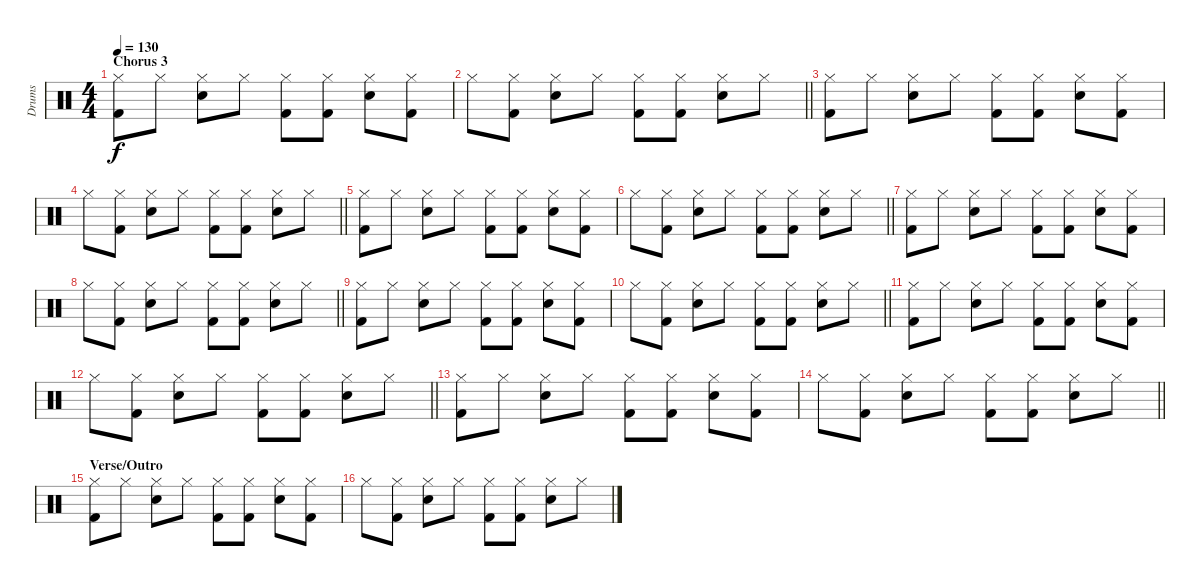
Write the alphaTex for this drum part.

\track ("Drums" "Drums") {instrument percussion}
\staff {score}
\articulation defaults
\ts (4 4)
\section ("" "Chorus 3")
\tempo 130
\clef neutral
\ks c
("Hi-Hat (closed)" "Kick (hit) 2").8{dy f} "Hi-Hat (closed)".8 ("Hi-Hat (closed)" "Electric Snare (hit)").8 "Hi-Hat (closed)".8 ("Hi-Hat (closed)" "Kick (hit) 2").8 ("Hi-Hat (closed)" "Kick (hit) 2").8 ("Hi-Hat (closed)" "Electric Snare (hit)").8 ("Hi-Hat (closed)" "Kick (hit) 2").8 |
\barLineRight lightlight "Hi-Hat (closed)".8
("Hi-Hat (closed)" "Kick (hit) 2").8 ("Hi-Hat (closed)" "Electric Snare (hit)").8 "Hi-Hat (closed)".8 ("Hi-Hat (closed)" "Kick (hit) 2").8 ("Hi-Hat (closed)" "Kick (hit) 2").8 ("Hi-Hat (closed)" "Electric Snare (hit)").8 "Hi-Hat (closed)".8 |
("Hi-Hat (closed)" "Kick (hit) 2").8 "Hi-Hat (closed)".8 ("Hi-Hat (closed)" "Electric Snare (hit)").8 "Hi-Hat (closed)".8 ("Hi-Hat (closed)" "Kick (hit) 2").8 ("Hi-Hat (closed)" "Kick (hit) 2").8 ("Hi-Hat (closed)" "Electric Snare (hit)").8 ("Hi-Hat (closed)" "Kick (hit) 2").8 |
\barLineRight lightlight "Hi-Hat (closed)".8
("Hi-Hat (closed)" "Kick (hit) 2").8 ("Hi-Hat (closed)" "Electric Snare (hit)").8 "Hi-Hat (closed)".8 ("Hi-Hat (closed)" "Kick (hit) 2").8 ("Hi-Hat (closed)" "Kick (hit) 2").8 ("Hi-Hat (closed)" "Electric Snare (hit)").8 "Hi-Hat (closed)".8 |
("Hi-Hat (closed)" "Kick (hit) 2").8 "Hi-Hat (closed)".8 ("Hi-Hat (closed)" "Electric Snare (hit)").8 "Hi-Hat (closed)".8 ("Hi-Hat (closed)" "Kick (hit) 2").8 ("Hi-Hat (closed)" "Kick (hit) 2").8 ("Hi-Hat (closed)" "Electric Snare (hit)").8 ("Hi-Hat (closed)" "Kick (hit) 2").8 |
\barLineRight lightlight "Hi-Hat (closed)".8
("Hi-Hat (closed)" "Kick (hit) 2").8 ("Hi-Hat (closed)" "Electric Snare (hit)").8 "Hi-Hat (closed)".8 ("Hi-Hat (closed)" "Kick (hit) 2").8 ("Hi-Hat (closed)" "Kick (hit) 2").8 ("Hi-Hat (closed)" "Electric Snare (hit)").8 "Hi-Hat (closed)".8 |
("Hi-Hat (closed)" "Kick (hit) 2").8 "Hi-Hat (closed)".8 ("Hi-Hat (closed)" "Electric Snare (hit)").8 "Hi-Hat (closed)".8 ("Hi-Hat (closed)" "Kick (hit) 2").8 ("Hi-Hat (closed)" "Kick (hit) 2").8 ("Hi-Hat (closed)" "Electric Snare (hit)").8 ("Hi-Hat (closed)" "Kick (hit) 2").8 |
\barLineRight lightlight "Hi-Hat (closed)".8
("Hi-Hat (closed)" "Kick (hit) 2").8 ("Hi-Hat (closed)" "Electric Snare (hit)").8 "Hi-Hat (closed)".8 ("Hi-Hat (closed)" "Kick (hit) 2").8 ("Hi-Hat (closed)" "Kick (hit) 2").8 ("Hi-Hat (closed)" "Electric Snare (hit)").8 "Hi-Hat (closed)".8 |
("Hi-Hat (closed)" "Kick (hit) 2").8 "Hi-Hat (closed)".8 ("Hi-Hat (closed)" "Electric Snare (hit)").8 "Hi-Hat (closed)".8 ("Hi-Hat (closed)" "Kick (hit) 2").8 ("Hi-Hat (closed)" "Kick (hit) 2").8 ("Hi-Hat (closed)" "Electric Snare (hit)").8 ("Hi-Hat (closed)" "Kick (hit) 2").8 |
\barLineRight lightlight "Hi-Hat (closed)".8
("Hi-Hat (closed)" "Kick (hit) 2").8 ("Hi-Hat (closed)" "Electric Snare (hit)").8 "Hi-Hat (closed)".8 ("Hi-Hat (closed)" "Kick (hit) 2").8 ("Hi-Hat (closed)" "Kick (hit) 2").8 ("Hi-Hat (closed)" "Electric Snare (hit)").8 "Hi-Hat (closed)".8 |
("Hi-Hat (closed)" "Kick (hit) 2").8 "Hi-Hat (closed)".8 ("Hi-Hat (closed)" "Electric Snare (hit)").8 "Hi-Hat (closed)".8 ("Hi-Hat (closed)" "Kick (hit) 2").8 ("Hi-Hat (closed)" "Kick (hit) 2").8 ("Hi-Hat (closed)" "Electric Snare (hit)").8 ("Hi-Hat (closed)" "Kick (hit) 2").8 |
\barLineRight lightlight "Hi-Hat (closed)".8
("Hi-Hat (closed)" "Kick (hit) 2").8 ("Hi-Hat (closed)" "Electric Snare (hit)").8 "Hi-Hat (closed)".8 ("Hi-Hat (closed)" "Kick (hit) 2").8 ("Hi-Hat (closed)" "Kick (hit) 2").8 ("Hi-Hat (closed)" "Electric Snare (hit)").8 "Hi-Hat (closed)".8 |
("Hi-Hat (closed)" "Kick (hit) 2").8 "Hi-Hat (closed)".8 ("Hi-Hat (closed)" "Electric Snare (hit)").8 "Hi-Hat (closed)".8 ("Hi-Hat (closed)" "Kick (hit) 2").8 ("Hi-Hat (closed)" "Kick (hit) 2").8 ("Hi-Hat (closed)" "Electric Snare (hit)").8 ("Hi-Hat (closed)" "Kick (hit) 2").8 |
\barLineRight lightlight "Hi-Hat (closed)".8
("Hi-Hat (closed)" "Kick (hit) 2").8 ("Hi-Hat (closed)" "Electric Snare (hit)").8 "Hi-Hat (closed)".8 ("Hi-Hat (closed)" "Kick (hit) 2").8 ("Hi-Hat (closed)" "Kick (hit) 2").8 ("Hi-Hat (closed)" "Electric Snare (hit)").8 "Hi-Hat (closed)".8 |
\section ("" "Verse/Outro")
("Hi-Hat (closed)" "Kick (hit) 2").8 "Hi-Hat (closed)".8 ("Hi-Hat (closed)" "Electric Snare (hit)").8 "Hi-Hat (closed)".8 ("Hi-Hat (closed)" "Kick (hit) 2").8 ("Hi-Hat (closed)" "Kick (hit) 2").8 ("Hi-Hat (closed)" "Electric Snare (hit)").8 ("Hi-Hat (closed)" "Kick (hit) 2").8 |
"Hi-Hat (closed)".8 ("Hi-Hat (closed)" "Kick (hit) 2").8 ("Hi-Hat (closed)" "Electric Snare (hit)").8 "Hi-Hat (closed)".8 ("Hi-Hat (closed)" "Kick (hit) 2").8 ("Hi-Hat (closed)" "Kick (hit) 2").8 ("Hi-Hat (closed)" "Electric Snare (hit)").8 "Hi-Hat (closed)".8
